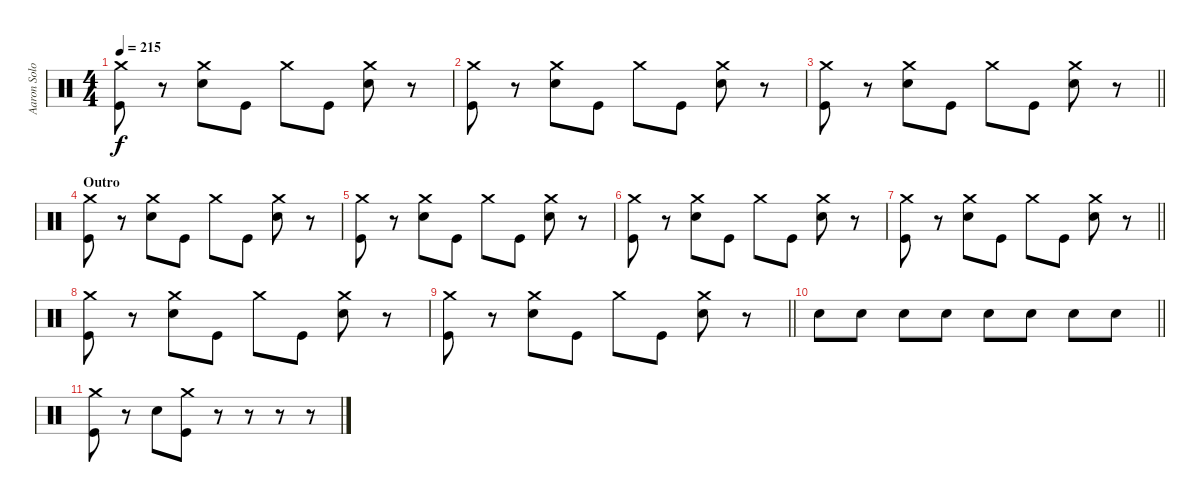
\track ("Aaron Solowoniuk" "Aaron Solo") {instrument percussion}
\staff {score}
\articulation defaults
\ts (4 4)
\tempo 215
\clef neutral
\ks c
("Crash medium (hit)" "Kick (hit)").8{dy f} r.8 ("Crash medium (hit)" "Electric Snare (hit)").8 "Kick (hit)".8 "Crash medium (hit)".8 "Kick (hit)".8 ("Crash medium (hit)" "Electric Snare (hit)").8 r.8 |
("Crash medium (hit)" "Kick (hit)").8 r.8 ("Crash medium (hit)" "Electric Snare (hit)").8 "Kick (hit)".8 "Crash medium (hit)".8 "Kick (hit)".8 ("Crash medium (hit)" "Electric Snare (hit)").8 r.8 |
\barLineRight lightlight
("Crash medium (hit)" "Kick (hit)").8 r.8 ("Crash medium (hit)" "Electric Snare (hit)").8 "Kick (hit)".8 "Crash medium (hit)".8 "Kick (hit)".8 ("Crash medium (hit)" "Electric Snare (hit)").8 r.8 |
\section ("" "Outro")
("Crash medium (hit)" "Kick (hit)").8 r.8 ("Crash medium (hit)" "Electric Snare (hit)").8 "Kick (hit)".8 "Crash medium (hit)".8 "Kick (hit)".8 ("Crash medium (hit)" "Electric Snare (hit)").8 r.8 |
("Crash medium (hit)" "Kick (hit)").8 r.8 ("Crash medium (hit)" "Electric Snare (hit)").8 "Kick (hit)".8 "Crash medium (hit)".8 "Kick (hit)".8 ("Crash medium (hit)" "Electric Snare (hit)").8 r.8 |
("Crash medium (hit)" "Kick (hit)").8 r.8 ("Crash medium (hit)" "Electric Snare (hit)").8 "Kick (hit)".8 "Crash medium (hit)".8 "Kick (hit)".8 ("Crash medium (hit)" "Electric Snare (hit)").8 r.8 |
\barLineRight lightlight
("Crash medium (hit)" "Kick (hit)").8 r.8 ("Crash medium (hit)" "Electric Snare (hit)").8 "Kick (hit)".8 "Crash medium (hit)".8 "Kick (hit)".8 ("Crash medium (hit)" "Electric Snare (hit)").8 r.8 |
("Crash medium (hit)" "Kick (hit)").8 r.8 ("Crash medium (hit)" "Electric Snare (hit)").8 "Kick (hit)".8 "Crash medium (hit)".8 "Kick (hit)".8 ("Crash medium (hit)" "Electric Snare (hit)").8 r.8 |
\barLineRight lightlight
("Crash medium (hit)" "Kick (hit)").8 r.8 ("Crash medium (hit)" "Electric Snare (hit)").8 "Kick (hit)".8 "Crash medium (hit)".8 "Kick (hit)".8 ("Crash medium (hit)" "Electric Snare (hit)").8 r.8 |
\barLineRight lightlight "Electric Snare (hit)".8 "Electric Snare (hit)".8 "Electric Snare (hit)".8 "Electric Snare (hit)".8 "Electric Snare (hit)".8 "Electric Snare (hit)".8 "Electric Snare (hit)".8 "Electric Snare (hit)".8
|
("Crash medium (hit)" "Kick (hit)").8 r.8 "Electric Snare (hit)".8 ("Crash medium (hit)" "Kick (hit)").8 r.8 r.8 r.8 r.8
